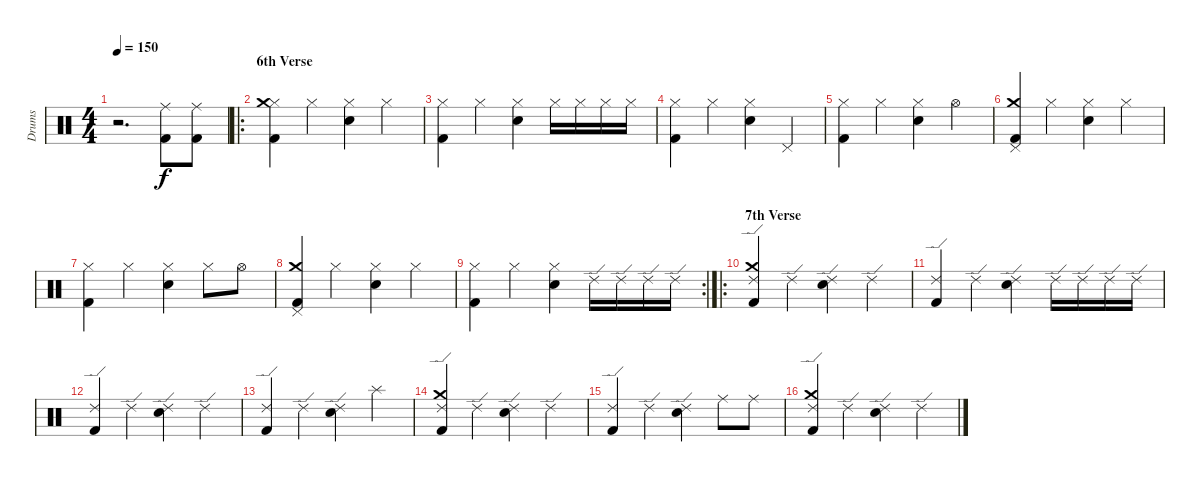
\track ("Drums" "Drums") {instrument percussion}
\staff {score}
\articulation defaults
\ts (4 4)
\tempo 150
\clef neutral
\ks c
r.2{d dy fff} ("Kick (hit) 2" "Ride (middle)").8{dy f} ("Kick (hit) 2" "Ride (middle)").8 |
\ro
\section ("" "6th Verse")
("Kick (hit) 2" "Hi-Hat (closed)" "Crash medium (hit)").4 "Hi-Hat (closed)".4 ("Electric Snare (hit)" "Hi-Hat (closed)").4 "Hi-Hat (closed)".4 |
("Kick (hit) 2" "Hi-Hat (closed)").4 "Hi-Hat (closed)".4 ("Electric Snare (hit)" "Hi-Hat (closed)").4 "Hi-Hat (closed)".16 "Hi-Hat (closed)".16 "Hi-Hat (closed)".16 "Hi-Hat (closed)".16 |
("Kick (hit) 2" "Hi-Hat (closed)").4 "Hi-Hat (closed)".4 ("Electric Snare (hit)" "Hi-Hat (closed)").4 "Pedal Hi-Hat (hit)".4 |
("Kick (hit) 2" "Hi-Hat (closed)").4 "Hi-Hat (closed)".4 ("Electric Snare (hit)" "Hi-Hat (closed)").4 "Hi-Hat (open)".4 |
("Kick (hit) 2" "Pedal Hi-Hat (hit)" "Crash medium (hit)").4 "Hi-Hat (closed)".4 ("Electric Snare (hit)" "Hi-Hat (closed)").4 "Hi-Hat (closed)".4 |
("Kick (hit) 2" "Hi-Hat (closed)").4 "Hi-Hat (closed)".4 ("Electric Snare (hit)" "Hi-Hat (closed)").4 "Hi-Hat (closed)".8 "Hi-Hat (open)".8 |
("Kick (hit) 2" "Pedal Hi-Hat (hit)" "Crash medium (hit)").4 "Hi-Hat (closed)".4 ("Electric Snare (hit)" "Hi-Hat (closed)").4 "Hi-Hat (closed)".4 |
\rc 2
("Kick (hit) 2" "Hi-Hat (closed)").4 "Hi-Hat (closed)".4 ("Electric Snare (hit)" "Hi-Hat (closed)").4 "Ride (edge) 2".16 "Ride (edge) 2".16 "Ride (edge) 2".16 "Ride (edge) 2".16 |
\ro
\section ("" "7th Verse")
("Kick (hit) 2" "Ride (edge) 2" "Crash medium (hit)").4 "Ride (edge) 2".4 ("Electric Snare (hit)" "Ride (edge) 2").4 "Ride (edge) 2".4 |
("Kick (hit) 2" "Ride (edge) 2").4 "Ride (edge) 2".4 ("Electric Snare (hit)" "Ride (edge) 2").4 "Ride (edge) 2".16 "Ride (edge) 2".16 "Ride (edge) 2".16 "Ride (edge) 2".16 |
("Kick (hit) 2" "Ride (edge) 2").4 "Ride (edge) 2".4 ("Electric Snare (hit)" "Ride (edge) 2").4 "Ride (edge) 2".4 |
("Kick (hit) 2" "Ride (edge) 2").4 "Ride (edge) 2".4 ("Electric Snare (hit)" "Ride (edge) 2").4 "Splash (hit)".4 |
("Kick (hit) 2" "Ride (edge) 2" "Crash medium (hit)").4 "Ride (edge) 2".4 ("Electric Snare (hit)" "Ride (edge) 2").4 "Ride (edge) 2".4 |
("Kick (hit) 2" "Ride (edge) 2").4 "Ride (edge) 2".4 ("Electric Snare (hit)" "Ride (edge) 2").4 "Ride (middle)".8 "Ride (middle)".8 |
("Kick (hit) 2" "Ride (edge) 2" "Crash medium (hit)").4 "Ride (edge) 2".4 ("Electric Snare (hit)" "Ride (edge) 2").4 "Ride (edge) 2".4
